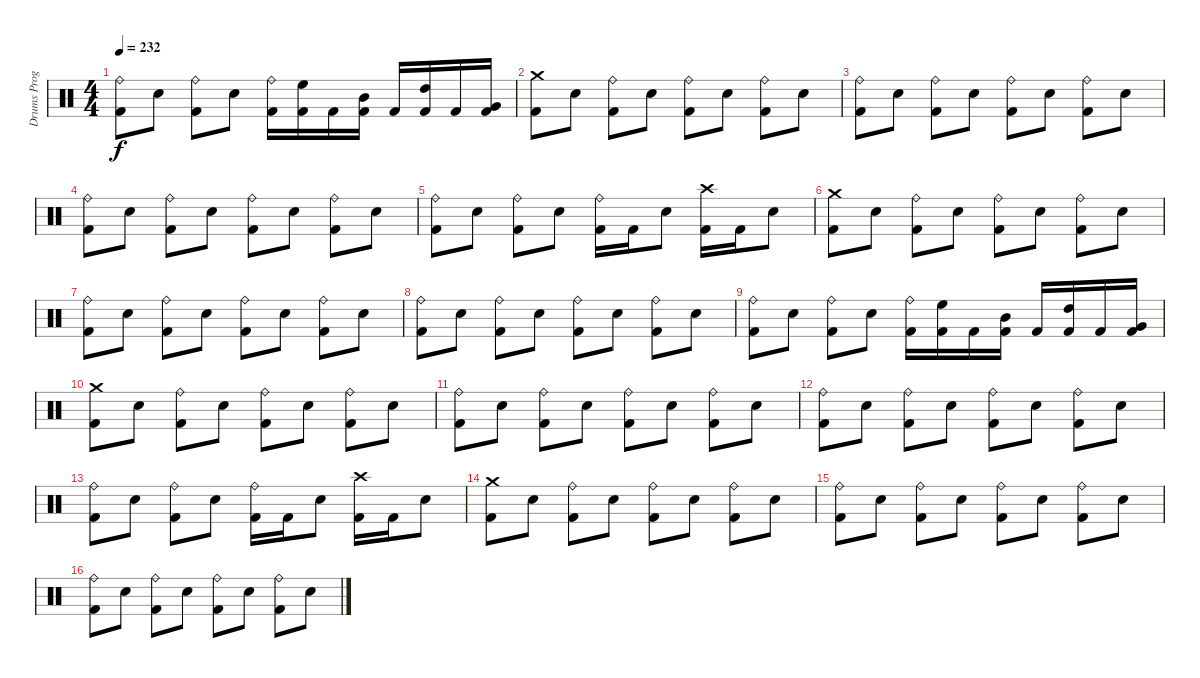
\track ("Drums Programming" "Drums Prog") {instrument percussion}
\staff {score}
\articulation defaults
\ts (4 4)
\tempo 232
\clef neutral
\ks c
("Ride (bell)" "Kick (hit) 2").8{dy f} "Electric Snare (hit)".8 ("Ride (bell)" "Kick (hit) 2").8 "Electric Snare (hit)".8 ("Ride (bell)" "Kick (hit) 2").16 ("High Floor Tom (hit)" "Kick (hit) 2").16 "Kick (hit) 2".16 ("Mid Tom (hit)" "Kick (hit) 2").16 "Kick (hit) 2".16 ("High Tom (hit)" "Kick (hit) 2").16 "Kick (hit) 2".16 ("Very Low Tom (hit)" "Kick (hit) 2").16 |
("Crash medium (hit)" "Kick (hit) 2").8 "Electric Snare (hit)".8 ("Ride (bell)" "Kick (hit) 2").8 "Electric Snare (hit)".8 ("Ride (bell)" "Kick (hit) 2").8 "Electric Snare (hit)".8 ("Ride (bell)" "Kick (hit) 2").8 "Electric Snare (hit)".8 |
("Ride (bell)" "Kick (hit) 2").8 "Electric Snare (hit)".8 ("Ride (bell)" "Kick (hit) 2").8 "Electric Snare (hit)".8 ("Ride (bell)" "Kick (hit) 2").8 "Electric Snare (hit)".8 ("Ride (bell)" "Kick (hit) 2").8 "Electric Snare (hit)".8 |
("Ride (bell)" "Kick (hit) 2").8 "Electric Snare (hit)".8 ("Ride (bell)" "Kick (hit) 2").8 "Electric Snare (hit)".8 ("Ride (bell)" "Kick (hit) 2").8 "Electric Snare (hit)".8 ("Ride (bell)" "Kick (hit) 2").8 "Electric Snare (hit)".8 |
("Ride (bell)" "Kick (hit) 2").8 "Electric Snare (hit)".8 ("Ride (bell)" "Kick (hit) 2").8 "Electric Snare (hit)".8 ("Ride (bell)" "Kick (hit) 2").16 "Kick (hit) 2".16 "Electric Snare (hit)".8 ("Crash high (hit)" "Kick (hit) 2").16 "Kick (hit) 2".16 "Electric Snare (hit)".8 |
("Crash medium (hit)" "Kick (hit) 2").8 "Electric Snare (hit)".8 ("Ride (bell)" "Kick (hit) 2").8 "Electric Snare (hit)".8 ("Ride (bell)" "Kick (hit) 2").8 "Electric Snare (hit)".8 ("Ride (bell)" "Kick (hit) 2").8 "Electric Snare (hit)".8 |
("Ride (bell)" "Kick (hit) 2").8 "Electric Snare (hit)".8 ("Ride (bell)" "Kick (hit) 2").8 "Electric Snare (hit)".8 ("Ride (bell)" "Kick (hit) 2").8 "Electric Snare (hit)".8 ("Ride (bell)" "Kick (hit) 2").8 "Electric Snare (hit)".8 |
("Ride (bell)" "Kick (hit) 2").8 "Electric Snare (hit)".8 ("Ride (bell)" "Kick (hit) 2").8 "Electric Snare (hit)".8 ("Ride (bell)" "Kick (hit) 2").8 "Electric Snare (hit)".8 ("Ride (bell)" "Kick (hit) 2").8 "Electric Snare (hit)".8 |
("Ride (bell)" "Kick (hit) 2").8 "Electric Snare (hit)".8 ("Ride (bell)" "Kick (hit) 2").8 "Electric Snare (hit)".8 ("Ride (bell)" "Kick (hit) 2").16 ("High Floor Tom (hit)" "Kick (hit) 2").16 "Kick (hit) 2".16 ("Mid Tom (hit)" "Kick (hit) 2").16 "Kick (hit) 2".16 ("High Tom (hit)" "Kick (hit) 2").16 "Kick (hit) 2".16 ("Very Low Tom (hit)" "Kick (hit) 2").16 |
("Crash medium (hit)" "Kick (hit) 2").8 "Electric Snare (hit)".8 ("Ride (bell)" "Kick (hit) 2").8 "Electric Snare (hit)".8 ("Ride (bell)" "Kick (hit) 2").8 "Electric Snare (hit)".8 ("Ride (bell)" "Kick (hit) 2").8 "Electric Snare (hit)".8 |
("Ride (bell)" "Kick (hit) 2").8 "Electric Snare (hit)".8 ("Ride (bell)" "Kick (hit) 2").8 "Electric Snare (hit)".8 ("Ride (bell)" "Kick (hit) 2").8 "Electric Snare (hit)".8 ("Ride (bell)" "Kick (hit) 2").8 "Electric Snare (hit)".8 |
("Ride (bell)" "Kick (hit) 2").8 "Electric Snare (hit)".8 ("Ride (bell)" "Kick (hit) 2").8 "Electric Snare (hit)".8 ("Ride (bell)" "Kick (hit) 2").8 "Electric Snare (hit)".8 ("Ride (bell)" "Kick (hit) 2").8 "Electric Snare (hit)".8 |
("Ride (bell)" "Kick (hit) 2").8 "Electric Snare (hit)".8 ("Ride (bell)" "Kick (hit) 2").8 "Electric Snare (hit)".8 ("Ride (bell)" "Kick (hit) 2").16 "Kick (hit) 2".16 "Electric Snare (hit)".8 ("Crash high (hit)" "Kick (hit) 2").16 "Kick (hit) 2".16 "Electric Snare (hit)".8 |
("Crash medium (hit)" "Kick (hit) 2").8 "Electric Snare (hit)".8 ("Ride (bell)" "Kick (hit) 2").8 "Electric Snare (hit)".8 ("Ride (bell)" "Kick (hit) 2").8 "Electric Snare (hit)".8 ("Ride (bell)" "Kick (hit) 2").8 "Electric Snare (hit)".8 |
("Ride (bell)" "Kick (hit) 2").8 "Electric Snare (hit)".8 ("Ride (bell)" "Kick (hit) 2").8 "Electric Snare (hit)".8 ("Ride (bell)" "Kick (hit) 2").8 "Electric Snare (hit)".8 ("Ride (bell)" "Kick (hit) 2").8 "Electric Snare (hit)".8 |
("Ride (bell)" "Kick (hit) 2").8 "Electric Snare (hit)".8 ("Ride (bell)" "Kick (hit) 2").8 "Electric Snare (hit)".8 ("Ride (bell)" "Kick (hit) 2").8 "Electric Snare (hit)".8 ("Ride (bell)" "Kick (hit) 2").8 "Electric Snare (hit)".8
